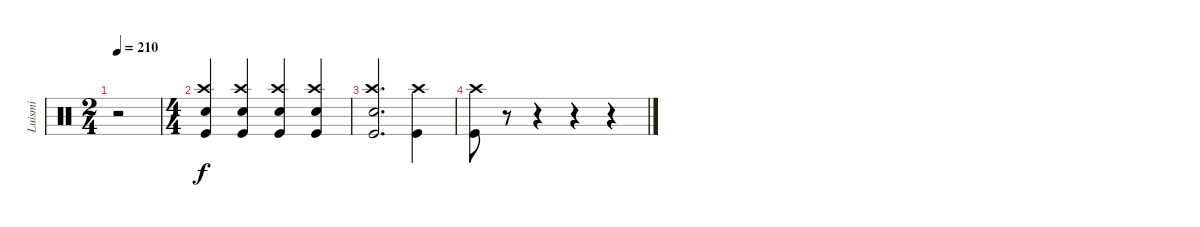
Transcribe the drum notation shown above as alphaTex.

\track ("Luismi" "Luismi") {instrument percussion}
\staff {score}
\articulation defaults
\ts (2 4)
\tempo 210
\clef neutral
\ks c
r.2{dy f} |
\ts (4 4)
("Snare (hit) 2" "Crash high (hit)" "Kick (hit)").4 ("Snare (hit) 2" "Crash high (hit)" "Kick (hit)").4 ("Snare (hit) 2" "Kick (hit)" "Crash high (hit)").4 ("Snare (hit) 2" "Kick (hit)" "Crash high (hit)").4 |
("Snare (hit) 2" "Kick (hit)" "Crash high (hit)").2{d} ("Kick (hit)" "Crash high (hit)").4 |
("Kick (hit)" "Crash high (hit)").8 r.8 r.4 r.4 r.4
